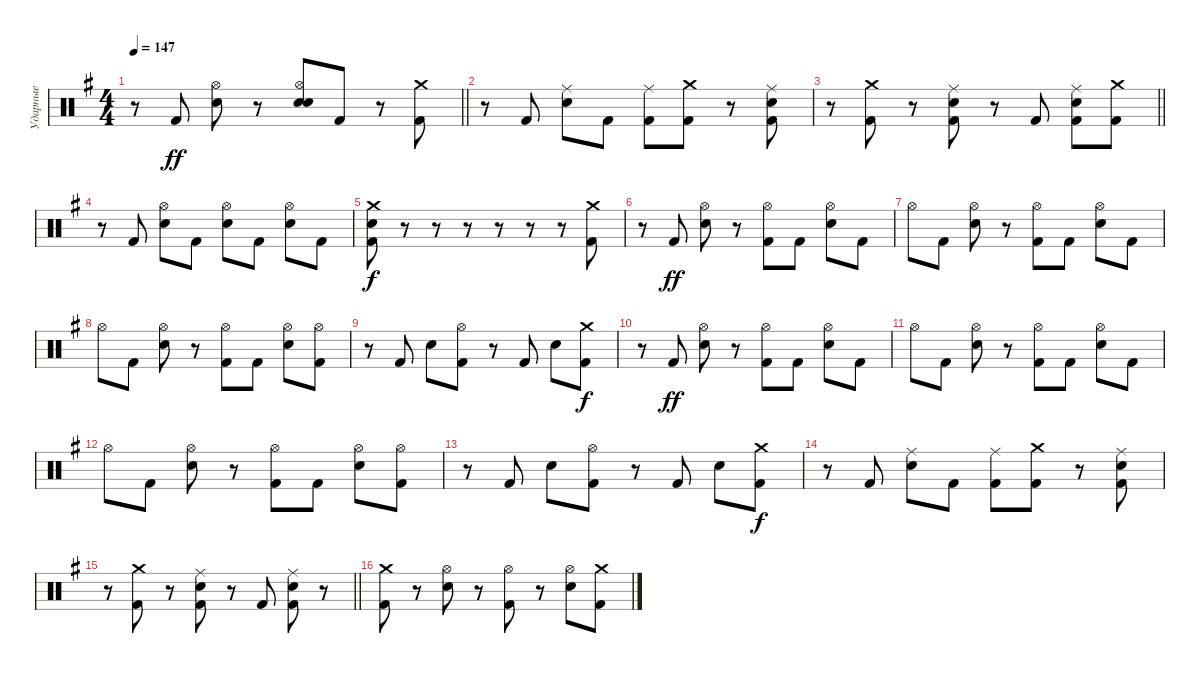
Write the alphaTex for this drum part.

\track ("Ударные" "Ударные") {instrument percussion}
\staff {score}
\articulation defaults
\ts (4 4)
\tempo 147
\clef neutral
\barLineRight lightlight
\ks eminor
r.8{dy ff} "Kick (hit) 2".8 ("Electric Snare (hit)" "Hi-Hat (open)").8 r.8 ("Snare (hit) 2" "Electric Snare (hit)" "Hi-Hat (open)").8 "Kick (hit) 2".8 r.8 ("Kick (hit) 2" "Crash medium (hit)").8 |
r.8 "Kick (hit) 2".8 ("Electric Snare (hit)" "Ride (middle)").8 "Kick (hit) 2".8 ("Kick (hit) 2" "Ride (middle)").8 ("Kick (hit) 2" "Crash medium (hit)").8 r.8 ("Kick (hit) 2" "Electric Snare (hit)" "Ride (middle)").8 |
\barLineRight lightlight
r.8 ("Kick (hit) 2" "Crash medium (hit)").8 r.8 ("Kick (hit) 2" "Electric Snare (hit)" "Ride (middle)").8 r.8 "Kick (hit) 2".8 ("Kick (hit) 2" "Electric Snare (hit)" "Ride (middle)").8 ("Kick (hit) 2" "Crash medium (hit)").8 |
r.8 "Kick (hit) 2".8 ("Electric Snare (hit)" "Hi-Hat (open)").8 "Kick (hit) 2".8 ("Electric Snare (hit)" "Hi-Hat (open)").8 "Kick (hit) 2".8 ("Electric Snare (hit)" "Hi-Hat (open)").8 "Kick (hit) 2".8 |
("Kick (hit) 2" "Electric Snare (hit)" "Crash medium (hit)").8{dy f} r.8 r.8 r.8 r.8 r.8 r.8 ("Kick (hit) 2" "Crash medium (hit)").8 |
r.8 "Kick (hit) 2".8{dy ff} ("Electric Snare (hit)" "Hi-Hat (open)").8 r.8 ("Kick (hit) 2" "Hi-Hat (open)").8 "Kick (hit) 2".8 ("Electric Snare (hit)" "Hi-Hat (open)").8 "Kick (hit) 2".8 |
"Hi-Hat (open)".8 "Kick (hit) 2".8 ("Electric Snare (hit)" "Hi-Hat (open)").8 r.8 ("Kick (hit) 2" "Hi-Hat (open)").8 "Kick (hit) 2".8 ("Electric Snare (hit)" "Hi-Hat (open)").8 "Kick (hit) 2".8 |
"Hi-Hat (open)".8 "Kick (hit) 2".8 ("Electric Snare (hit)" "Hi-Hat (open)").8 r.8 ("Kick (hit) 2" "Hi-Hat (open)").8 "Kick (hit) 2".8 ("Electric Snare (hit)" "Hi-Hat (open)").8 ("Kick (hit) 2" "Hi-Hat (open)").8 |
r.8 "Kick (hit) 2".8 "Electric Snare (hit)".8 ("Kick (hit) 2" "Hi-Hat (open)").8 r.8 "Kick (hit) 2".8 "Electric Snare (hit)".8 ("Kick (hit) 2" "Crash medium (hit)").8{dy f} |
r.8 "Kick (hit) 2".8{dy ff} ("Electric Snare (hit)" "Hi-Hat (open)").8 r.8 ("Kick (hit) 2" "Hi-Hat (open)").8 "Kick (hit) 2".8 ("Electric Snare (hit)" "Hi-Hat (open)").8 "Kick (hit) 2".8 |
"Hi-Hat (open)".8 "Kick (hit) 2".8 ("Electric Snare (hit)" "Hi-Hat (open)").8 r.8 ("Kick (hit) 2" "Hi-Hat (open)").8 "Kick (hit) 2".8 ("Electric Snare (hit)" "Hi-Hat (open)").8 "Kick (hit) 2".8 |
"Hi-Hat (open)".8 "Kick (hit) 2".8 ("Electric Snare (hit)" "Hi-Hat (open)").8 r.8 ("Kick (hit) 2" "Hi-Hat (open)").8 "Kick (hit) 2".8 ("Electric Snare (hit)" "Hi-Hat (open)").8 ("Kick (hit) 2" "Hi-Hat (open)").8 |
r.8 "Kick (hit) 2".8 "Electric Snare (hit)".8 ("Kick (hit) 2" "Hi-Hat (open)").8 r.8 "Kick (hit) 2".8 "Electric Snare (hit)".8 ("Kick (hit) 2" "Crash medium (hit)").8{dy f} |
r.8 "Kick (hit) 2".8 ("Electric Snare (hit)" "Ride (middle)").8 "Kick (hit) 2".8 ("Kick (hit) 2" "Ride (middle)").8 ("Kick (hit) 2" "Crash medium (hit)").8 r.8 ("Kick (hit) 2" "Electric Snare (hit)" "Ride (middle)").8 |
\barLineRight lightlight
r.8 ("Kick (hit) 2" "Crash medium (hit)").8 r.8 ("Kick (hit) 2" "Electric Snare (hit)" "Ride (middle)").8 r.8 "Kick (hit) 2".8 ("Kick (hit) 2" "Electric Snare (hit)" "Ride (middle)").8 r.8 |
("Kick (hit) 2" "Crash medium (hit)").8 r.8 ("Electric Snare (hit)" "Hi-Hat (open)").8 r.8 ("Kick (hit) 2" "Hi-Hat (open)").8 r.8 ("Electric Snare (hit)" "Hi-Hat (open)").8 ("Kick (hit) 2" "Crash medium (hit)").8
